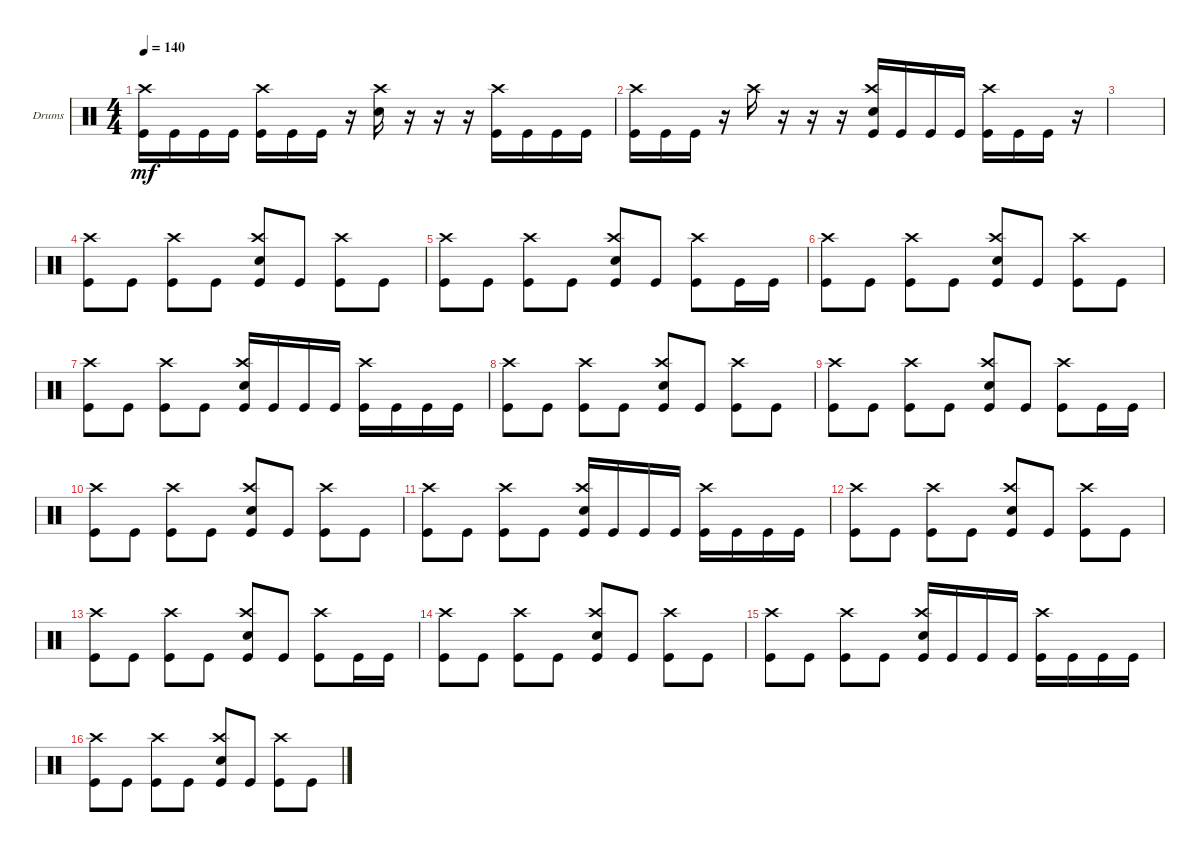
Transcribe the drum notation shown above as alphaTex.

\bracketExtendMode groupsimilarinstruments
\firstSystemTrackNameOrientation horizontal
\otherSystemsTrackNameOrientation horizontal
\track ("Drumkit" "Drums") {instrument percussion}
\staff {score}
\articulation defaults
\ts (4 4)
\tempo 140
\clef neutral
\ks c
("Kick (hit)" "Crash high (hit)").16{dy mf} "Kick (hit)".16 "Kick (hit)".16 "Kick (hit)".16 ("Kick (hit)" "Crash high (hit)").16 "Kick (hit)".16 "Kick (hit)".16 r.16 ("Snare (hit) 2" "Crash high (hit)").16 r.16 r.16 r.16 ("Kick (hit)" "Crash high (hit)").16 "Kick (hit)".16 "Kick (hit)".16 "Kick (hit)".16 |
("Kick (hit)" "Crash high (hit)").16 "Kick (hit)".16 "Kick (hit)".16 r.16 "Crash high (hit)".16 r.16 r.16 r.16 ("Kick (hit)" "Snare (hit) 2" "Crash high (hit)").16 "Kick (hit)".16 "Kick (hit)".16 "Kick (hit)".16 ("Kick (hit)" "Crash high (hit)").16 "Kick (hit)".16 "Kick (hit)".16 r.16 |
|
("Kick (hit)" "Crash high (hit)").8 "Kick (hit)".8 ("Kick (hit)" "Crash high (hit)").8 "Kick (hit)".8 ("Kick (hit)" "Snare (hit) 2" "Crash high (hit)").8 "Kick (hit)".8 ("Kick (hit)" "Crash high (hit)").8 "Kick (hit)".8 |
("Kick (hit)" "Crash high (hit)").8 "Kick (hit)".8 ("Kick (hit)" "Crash high (hit)").8 "Kick (hit)".8 ("Kick (hit)" "Snare (hit) 2" "Crash high (hit)").8 "Kick (hit)".8 ("Kick (hit)" "Crash high (hit)").8 "Kick (hit)".16 "Kick (hit)".16 |
("Kick (hit)" "Crash high (hit)").8 "Kick (hit)".8 ("Kick (hit)" "Crash high (hit)").8 "Kick (hit)".8 ("Kick (hit)" "Snare (hit) 2" "Crash high (hit)").8 "Kick (hit)".8 ("Kick (hit)" "Crash high (hit)").8 "Kick (hit)".8 |
("Kick (hit)" "Crash high (hit)").8 "Kick (hit)".8 ("Kick (hit)" "Crash high (hit)").8 "Kick (hit)".8 ("Kick (hit)" "Snare (hit) 2" "Crash high (hit)").16 "Kick (hit)".16 "Kick (hit)".16 "Kick (hit)".16 ("Kick (hit)" "Crash high (hit)").16 "Kick (hit)".16 "Kick (hit)".16 "Kick (hit)".16 |
("Kick (hit)" "Crash high (hit)").8 "Kick (hit)".8 ("Kick (hit)" "Crash high (hit)").8 "Kick (hit)".8 ("Kick (hit)" "Snare (hit) 2" "Crash high (hit)").8 "Kick (hit)".8 ("Kick (hit)" "Crash high (hit)").8 "Kick (hit)".8 |
("Kick (hit)" "Crash high (hit)").8 "Kick (hit)".8 ("Kick (hit)" "Crash high (hit)").8 "Kick (hit)".8 ("Kick (hit)" "Snare (hit) 2" "Crash high (hit)").8 "Kick (hit)".8 ("Kick (hit)" "Crash high (hit)").8 "Kick (hit)".16 "Kick (hit)".16 |
("Kick (hit)" "Crash high (hit)").8 "Kick (hit)".8 ("Kick (hit)" "Crash high (hit)").8 "Kick (hit)".8 ("Kick (hit)" "Snare (hit) 2" "Crash high (hit)").8 "Kick (hit)".8 ("Kick (hit)" "Crash high (hit)").8 "Kick (hit)".8 |
("Kick (hit)" "Crash high (hit)").8 "Kick (hit)".8 ("Kick (hit)" "Crash high (hit)").8 "Kick (hit)".8 ("Kick (hit)" "Snare (hit) 2" "Crash high (hit)").16 "Kick (hit)".16 "Kick (hit)".16 "Kick (hit)".16 ("Kick (hit)" "Crash high (hit)").16 "Kick (hit)".16 "Kick (hit)".16 "Kick (hit)".16 |
("Kick (hit)" "Crash high (hit)").8 "Kick (hit)".8 ("Kick (hit)" "Crash high (hit)").8 "Kick (hit)".8 ("Kick (hit)" "Snare (hit) 2" "Crash high (hit)").8 "Kick (hit)".8 ("Kick (hit)" "Crash high (hit)").8 "Kick (hit)".8 |
("Kick (hit)" "Crash high (hit)").8 "Kick (hit)".8 ("Kick (hit)" "Crash high (hit)").8 "Kick (hit)".8 ("Kick (hit)" "Snare (hit) 2" "Crash high (hit)").8 "Kick (hit)".8 ("Kick (hit)" "Crash high (hit)").8 "Kick (hit)".16 "Kick (hit)".16 |
("Kick (hit)" "Crash high (hit)").8 "Kick (hit)".8 ("Kick (hit)" "Crash high (hit)").8 "Kick (hit)".8 ("Kick (hit)" "Snare (hit) 2" "Crash high (hit)").8 "Kick (hit)".8 ("Kick (hit)" "Crash high (hit)").8 "Kick (hit)".8 |
("Kick (hit)" "Crash high (hit)").8 "Kick (hit)".8 ("Kick (hit)" "Crash high (hit)").8 "Kick (hit)".8 ("Kick (hit)" "Snare (hit) 2" "Crash high (hit)").16 "Kick (hit)".16 "Kick (hit)".16 "Kick (hit)".16 ("Kick (hit)" "Crash high (hit)").16 "Kick (hit)".16 "Kick (hit)".16 "Kick (hit)".16 |
("Kick (hit)" "Crash high (hit)").8 "Kick (hit)".8 ("Kick (hit)" "Crash high (hit)").8 "Kick (hit)".8 ("Kick (hit)" "Snare (hit) 2" "Crash high (hit)").8 "Kick (hit)".8 ("Kick (hit)" "Crash high (hit)").8 "Kick (hit)".8
